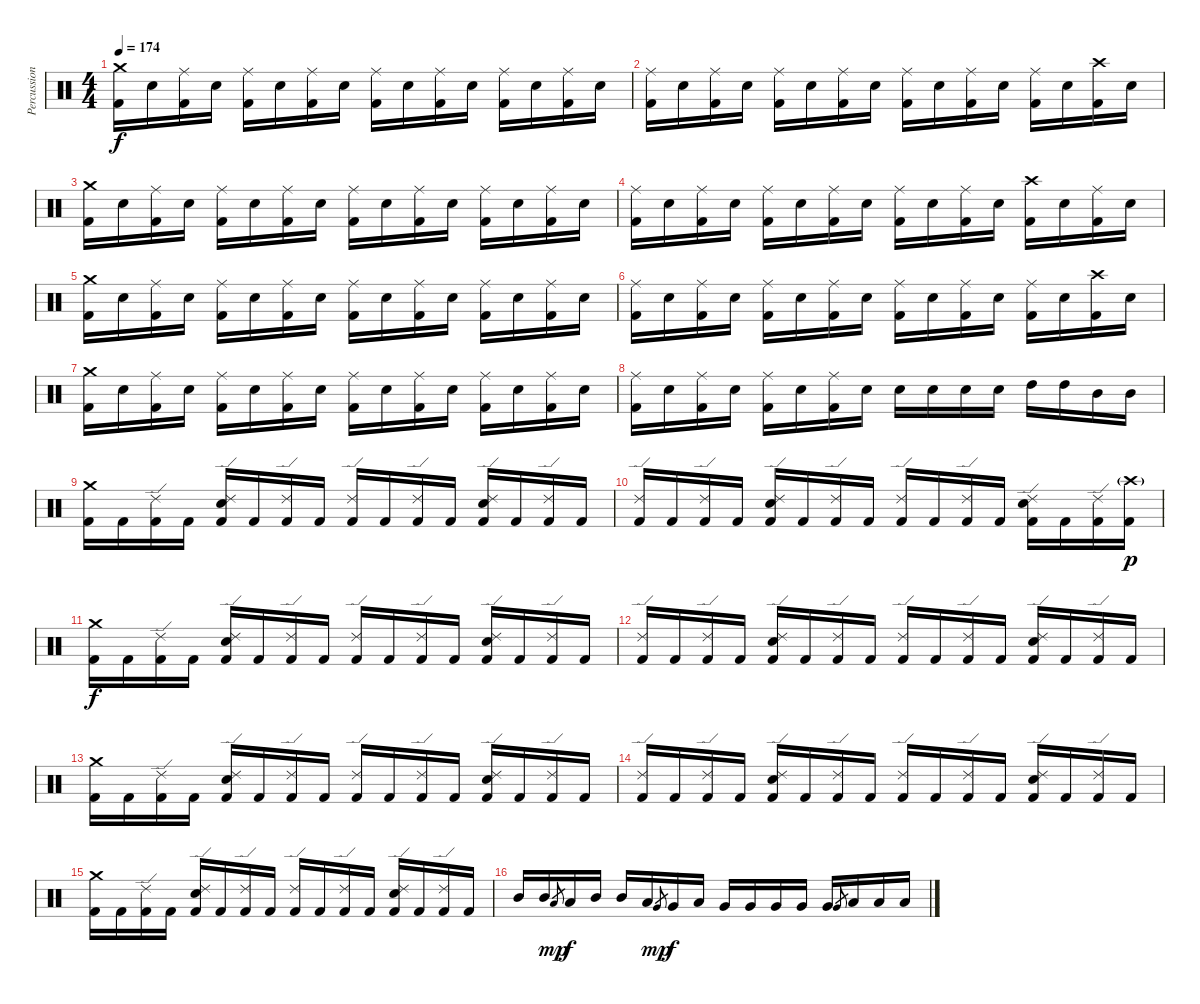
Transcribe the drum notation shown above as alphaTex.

\track ("Percussion" "Percussion") {instrument percussion}
\staff {score}
\articulation defaults
\ts (4 4)
\tempo 174
\clef neutral
\ks c
("Crash medium (hit)" "Kick (hit) 2").16{dy f} "Electric Snare (hit)".16 ("Ride (middle)" "Kick (hit) 2").16 "Electric Snare (hit)".16 ("Ride (middle)" "Kick (hit) 2").16 "Electric Snare (hit)".16 ("Ride (middle)" "Kick (hit) 2").16 "Electric Snare (hit)".16 ("Ride (middle)" "Kick (hit) 2").16 "Electric Snare (hit)".16 ("Ride (middle)" "Kick (hit) 2").16 "Electric Snare (hit)".16 ("Ride (middle)" "Kick (hit) 2").16 "Electric Snare (hit)".16 ("Ride (middle)" "Kick (hit) 2").16 "Electric Snare (hit)".16 |
("Ride (middle)" "Kick (hit) 2").16 "Electric Snare (hit)".16 ("Ride (middle)" "Kick (hit) 2").16 "Electric Snare (hit)".16 ("Ride (middle)" "Kick (hit) 2").16 "Electric Snare (hit)".16 ("Ride (middle)" "Kick (hit) 2").16 "Electric Snare (hit)".16 ("Ride (middle)" "Kick (hit) 2").16 "Electric Snare (hit)".16 ("Ride (middle)" "Kick (hit) 2").16 "Electric Snare (hit)".16 ("Ride (middle)" "Kick (hit) 2").16 "Electric Snare (hit)".16 ("Crash high (hit)" "Kick (hit) 2").16 "Electric Snare (hit)".16 |
("Crash medium (hit)" "Kick (hit) 2").16 "Electric Snare (hit)".16 ("Ride (middle)" "Kick (hit) 2").16 "Electric Snare (hit)".16 ("Ride (middle)" "Kick (hit) 2").16 "Electric Snare (hit)".16 ("Ride (middle)" "Kick (hit) 2").16 "Electric Snare (hit)".16 ("Ride (middle)" "Kick (hit) 2").16 "Electric Snare (hit)".16 ("Ride (middle)" "Kick (hit) 2").16 "Electric Snare (hit)".16 ("Ride (middle)" "Kick (hit) 2").16 "Electric Snare (hit)".16 ("Ride (middle)" "Kick (hit) 2").16 "Electric Snare (hit)".16 |
("Ride (middle)" "Kick (hit) 2").16 "Electric Snare (hit)".16 ("Ride (middle)" "Kick (hit) 2").16 "Electric Snare (hit)".16 ("Ride (middle)" "Kick (hit) 2").16 "Electric Snare (hit)".16 ("Ride (middle)" "Kick (hit) 2").16 "Electric Snare (hit)".16 ("Ride (middle)" "Kick (hit) 2").16 "Electric Snare (hit)".16 ("Ride (middle)" "Kick (hit) 2").16 "Electric Snare (hit)".16 ("Crash high (hit)" "Kick (hit) 2").16 "Electric Snare (hit)".16 ("Ride (middle)" "Kick (hit) 2").16 "Electric Snare (hit)".16 |
("Crash medium (hit)" "Kick (hit) 2").16 "Electric Snare (hit)".16 ("Ride (middle)" "Kick (hit) 2").16 "Electric Snare (hit)".16 ("Ride (middle)" "Kick (hit) 2").16 "Electric Snare (hit)".16 ("Ride (middle)" "Kick (hit) 2").16 "Electric Snare (hit)".16 ("Ride (middle)" "Kick (hit) 2").16 "Electric Snare (hit)".16 ("Ride (middle)" "Kick (hit) 2").16 "Electric Snare (hit)".16 ("Ride (middle)" "Kick (hit) 2").16 "Electric Snare (hit)".16 ("Ride (middle)" "Kick (hit) 2").16 "Electric Snare (hit)".16 |
("Ride (middle)" "Kick (hit) 2").16 "Electric Snare (hit)".16 ("Ride (middle)" "Kick (hit) 2").16 "Electric Snare (hit)".16 ("Ride (middle)" "Kick (hit) 2").16 "Electric Snare (hit)".16 ("Ride (middle)" "Kick (hit) 2").16 "Electric Snare (hit)".16 ("Ride (middle)" "Kick (hit) 2").16 "Electric Snare (hit)".16 ("Ride (middle)" "Kick (hit) 2").16 "Electric Snare (hit)".16 ("Ride (middle)" "Kick (hit) 2").16 "Electric Snare (hit)".16 ("Crash high (hit)" "Kick (hit) 2").16 "Electric Snare (hit)".16 |
("Crash medium (hit)" "Kick (hit) 2").16 "Electric Snare (hit)".16 ("Ride (middle)" "Kick (hit) 2").16 "Electric Snare (hit)".16 ("Ride (middle)" "Kick (hit) 2").16 "Electric Snare (hit)".16 ("Ride (middle)" "Kick (hit) 2").16 "Electric Snare (hit)".16 ("Ride (middle)" "Kick (hit) 2").16 "Electric Snare (hit)".16 ("Ride (middle)" "Kick (hit) 2").16 "Electric Snare (hit)".16 ("Ride (middle)" "Kick (hit) 2").16 "Electric Snare (hit)".16 ("Ride (middle)" "Kick (hit) 2").16 "Electric Snare (hit)".16 |
("Ride (middle)" "Kick (hit) 2").16 "Electric Snare (hit)".16 ("Ride (middle)" "Kick (hit) 2").16 "Electric Snare (hit)".16 ("Ride (middle)" "Kick (hit) 2").16 "Electric Snare (hit)".16 ("Ride (middle)" "Kick (hit) 2").16 "Electric Snare (hit)".16 "Electric Snare (hit)".16 "Electric Snare (hit)".16 "Electric Snare (hit)".16 "Electric Snare (hit)".16 "High Tom (hit)".16 "High Tom (hit)".16 "Mid Tom (hit)".16 "Mid Tom (hit)".16 |
("Crash medium (hit)" "Kick (hit) 2").16 "Kick (hit) 2".16 ("Ride (edge) 2" "Kick (hit) 2").16 "Kick (hit) 2".16 ("Ride (edge) 2" "Electric Snare (hit)" "Kick (hit) 2").16 "Kick (hit) 2".16 ("Ride (edge) 2" "Kick (hit) 2").16 "Kick (hit) 2".16 ("Ride (edge) 2" "Kick (hit) 2").16 "Kick (hit) 2".16 ("Ride (edge) 2" "Kick (hit) 2").16 "Kick (hit) 2".16 ("Ride (edge) 2" "Electric Snare (hit)" "Kick (hit) 2").16 "Kick (hit) 2".16 ("Ride (edge) 2" "Kick (hit) 2").16 "Kick (hit) 2".16 |
("Ride (edge) 2" "Kick (hit) 2").16 "Kick (hit) 2".16 ("Ride (edge) 2" "Kick (hit) 2").16 "Kick (hit) 2".16 ("Ride (edge) 2" "Electric Snare (hit)" "Kick (hit) 2").16 "Kick (hit) 2".16 ("Ride (edge) 2" "Kick (hit) 2").16 "Kick (hit) 2".16 ("Ride (edge) 2" "Kick (hit) 2").16 "Kick (hit) 2".16 ("Ride (edge) 2" "Kick (hit) 2").16 "Kick (hit) 2".16 ("Ride (edge) 2" "Electric Snare (hit)" "Kick (hit) 2").16 "Kick (hit) 2".16 ("Ride (edge) 2" "Kick (hit) 2").16 ("Crash high (hit)"{g} "Kick (hit) 2").16{dy p} |
("Crash medium (hit)" "Kick (hit) 2").16{dy f} "Kick (hit) 2".16 ("Ride (edge) 2" "Kick (hit) 2").16 "Kick (hit) 2".16 ("Ride (edge) 2" "Electric Snare (hit)" "Kick (hit) 2").16 "Kick (hit) 2".16 ("Ride (edge) 2" "Kick (hit) 2").16 "Kick (hit) 2".16 ("Ride (edge) 2" "Kick (hit) 2").16 "Kick (hit) 2".16 ("Ride (edge) 2" "Kick (hit) 2").16 "Kick (hit) 2".16 ("Ride (edge) 2" "Electric Snare (hit)" "Kick (hit) 2").16 "Kick (hit) 2".16 ("Ride (edge) 2" "Kick (hit) 2").16 "Kick (hit) 2".16 |
("Ride (edge) 2" "Kick (hit) 2").16 "Kick (hit) 2".16 ("Ride (edge) 2" "Kick (hit) 2").16 "Kick (hit) 2".16 ("Ride (edge) 2" "Electric Snare (hit)" "Kick (hit) 2").16 "Kick (hit) 2".16 ("Ride (edge) 2" "Kick (hit) 2").16 "Kick (hit) 2".16 ("Ride (edge) 2" "Kick (hit) 2").16 "Kick (hit) 2".16 ("Ride (edge) 2" "Kick (hit) 2").16 "Kick (hit) 2".16 ("Ride (edge) 2" "Electric Snare (hit)" "Kick (hit) 2").16 "Kick (hit) 2".16 ("Ride (edge) 2" "Kick (hit) 2").16 "Kick (hit) 2".16 |
("Crash medium (hit)" "Kick (hit) 2").16 "Kick (hit) 2".16 ("Ride (edge) 2" "Kick (hit) 2").16 "Kick (hit) 2".16 ("Ride (edge) 2" "Electric Snare (hit)" "Kick (hit) 2").16 "Kick (hit) 2".16 ("Ride (edge) 2" "Kick (hit) 2").16 "Kick (hit) 2".16 ("Ride (edge) 2" "Kick (hit) 2").16 "Kick (hit) 2".16 ("Ride (edge) 2" "Kick (hit) 2").16 "Kick (hit) 2".16 ("Ride (edge) 2" "Electric Snare (hit)" "Kick (hit) 2").16 "Kick (hit) 2".16 ("Ride (edge) 2" "Kick (hit) 2").16 "Kick (hit) 2".16 |
("Ride (edge) 2" "Kick (hit) 2").16 "Kick (hit) 2".16 ("Ride (edge) 2" "Kick (hit) 2").16 "Kick (hit) 2".16 ("Ride (edge) 2" "Electric Snare (hit)" "Kick (hit) 2").16 "Kick (hit) 2".16 ("Ride (edge) 2" "Kick (hit) 2").16 "Kick (hit) 2".16 ("Ride (edge) 2" "Kick (hit) 2").16 "Kick (hit) 2".16 ("Ride (edge) 2" "Kick (hit) 2").16 "Kick (hit) 2".16 ("Ride (edge) 2" "Electric Snare (hit)" "Kick (hit) 2").16 "Kick (hit) 2".16 ("Ride (edge) 2" "Kick (hit) 2").16 "Kick (hit) 2".16 |
("Crash medium (hit)" "Kick (hit) 2").16 "Kick (hit) 2".16 ("Ride (edge) 2" "Kick (hit) 2").16 "Kick (hit) 2".16 ("Ride (edge) 2" "Electric Snare (hit)" "Kick (hit) 2").16 "Kick (hit) 2".16 ("Ride (edge) 2" "Kick (hit) 2").16 "Kick (hit) 2".16 ("Ride (edge) 2" "Kick (hit) 2").16 "Kick (hit) 2".16 ("Ride (edge) 2" "Kick (hit) 2").16 "Kick (hit) 2".16 ("Ride (edge) 2" "Electric Snare (hit)" "Kick (hit) 2").16 "Kick (hit) 2".16 ("Ride (edge) 2" "Kick (hit) 2").16 "Kick (hit) 2".16 |
"Mid Tom (hit)".16 "Mid Tom (hit)".16 "Low Tom (hit)".8{gr dy mp} "Low Tom (hit)".16{dy f} "Mid Tom (hit)".16 "Mid Tom (hit)".16 "Low Tom (hit)".16 "Very Low Tom (hit)".8{gr dy mp} "Very Low Tom (hit)".16{dy f} "Low Tom (hit)".16 "Very Low Tom (hit)".16 "Very Low Tom (hit)".16 "Very Low Tom (hit)".16 "Very Low Tom (hit)".16 "Very Low Tom (hit)".16 "Very Low Tom (hit)".8{gr} "Low Floor Tom (hit)".16 "Low Floor Tom (hit)".16 "Low Floor Tom (hit)".16
